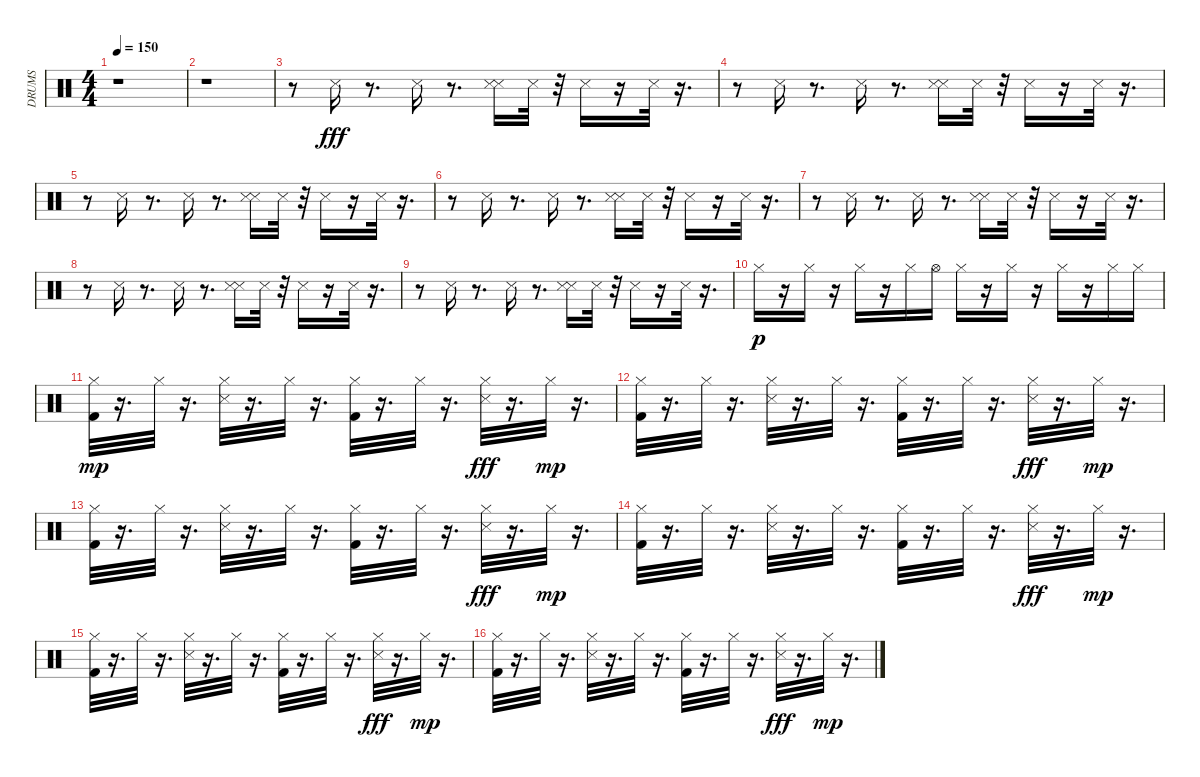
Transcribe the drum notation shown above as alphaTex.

\track ("DRUMS" "DRUMS") {instrument percussion}
\staff {score}
\articulation defaults
\ts (4 4)
\tempo 150
\clef neutral
\ks c
r.1{dy fff} |
r.1 |
r.8 "Metronome (hit)".16 r.8{d} "Metronome (hit)".16 r.8{d} ("Metronome (hit)" "Metronome (hit)").16 "Metronome (hit)".32 r.32 "Metronome (hit)".16 r.16 "Metronome (hit)".32 r.16{d} |
r.8 "Metronome (hit)".16 r.8{d} "Metronome (hit)".16 r.8{d} ("Metronome (hit)" "Metronome (hit)").16 "Metronome (hit)".32 r.32 "Metronome (hit)".16 r.16 "Metronome (hit)".32 r.16{d} |
r.8 "Metronome (hit)".16 r.8{d} "Metronome (hit)".16 r.8{d} ("Metronome (hit)" "Metronome (hit)").16 "Metronome (hit)".32 r.32 "Metronome (hit)".16 r.16 "Metronome (hit)".32 r.16{d} |
r.8 "Metronome (hit)".16 r.8{d} "Metronome (hit)".16 r.8{d} ("Metronome (hit)" "Metronome (hit)").16 "Metronome (hit)".32 r.32 "Metronome (hit)".16 r.16 "Metronome (hit)".32 r.16{d} |
r.8 "Metronome (hit)".16 r.8{d} "Metronome (hit)".16 r.8{d} ("Metronome (hit)" "Metronome (hit)").16 "Metronome (hit)".32 r.32 "Metronome (hit)".16 r.16 "Metronome (hit)".32 r.16{d} |
r.8 "Metronome (hit)".16 r.8{d} "Metronome (hit)".16 r.8{d} ("Metronome (hit)" "Metronome (hit)").16 "Metronome (hit)".32 r.32 "Metronome (hit)".16 r.16 "Metronome (hit)".32 r.16{d} |
r.8 "Metronome (hit)".16 r.8{d} "Metronome (hit)".16 r.8{d} ("Metronome (hit)" "Metronome (hit)").16 "Metronome (hit)".32 r.32 "Metronome (hit)".16 r.16 "Metronome (hit)".32 r.16{d} |
"Hi-Hat (closed)".16{dy p} r.16 "Hi-Hat (closed)".16 r.16 "Hi-Hat (closed)".16 r.16 "Hi-Hat (closed)".16 "Hi-Hat (open)".16 "Hi-Hat (closed)".16 r.16 "Hi-Hat (closed)".16 r.16 "Hi-Hat (closed)".16 r.16 "Hi-Hat (closed)".16 "Hi-Hat (closed)".16 |
("Hi-Hat (closed)" "Kick (hit) 2").32{dy mp} r.16{d} "Hi-Hat (closed)".32 r.16{d} ("Snare (side stick) 3" "Hi-Hat (closed)").32 r.16{d} "Hi-Hat (closed)".32 r.16{d} ("Kick (hit) 2" "Hi-Hat (closed)").32 r.16{d} "Hi-Hat (closed)".32 r.16{d} ("Hi-Hat (closed)" "Snare (side stick) 3").32{dy fff} r.16{d} "Hi-Hat (closed)".32{dy mp} r.16{d} |
("Hi-Hat (closed)" "Kick (hit) 2").32 r.16{d} "Hi-Hat (closed)".32 r.16{d} ("Snare (side stick) 3" "Hi-Hat (closed)").32 r.16{d} "Hi-Hat (closed)".32 r.16{d} ("Kick (hit) 2" "Hi-Hat (closed)").32 r.16{d} "Hi-Hat (closed)".32 r.16{d} ("Hi-Hat (closed)" "Snare (side stick) 3").32{dy fff} r.16{d} "Hi-Hat (closed)".32{dy mp} r.16{d} |
("Hi-Hat (closed)" "Kick (hit) 2").32 r.16{d} "Hi-Hat (closed)".32 r.16{d} ("Snare (side stick) 3" "Hi-Hat (closed)").32 r.16{d} "Hi-Hat (closed)".32 r.16{d} ("Kick (hit) 2" "Hi-Hat (closed)").32 r.16{d} "Hi-Hat (closed)".32 r.16{d} ("Hi-Hat (closed)" "Snare (side stick) 3").32{dy fff} r.16{d} "Hi-Hat (closed)".32{dy mp} r.16{d} |
("Hi-Hat (closed)" "Kick (hit) 2").32 r.16{d} "Hi-Hat (closed)".32 r.16{d} ("Snare (side stick) 3" "Hi-Hat (closed)").32 r.16{d} "Hi-Hat (closed)".32 r.16{d} ("Kick (hit) 2" "Hi-Hat (closed)").32 r.16{d} "Hi-Hat (closed)".32 r.16{d} ("Hi-Hat (closed)" "Snare (side stick) 3").32{dy fff} r.16{d} "Hi-Hat (closed)".32{dy mp} r.16{d} |
("Hi-Hat (closed)" "Kick (hit) 2").32 r.16{d} "Hi-Hat (closed)".32 r.16{d} ("Snare (side stick) 3" "Hi-Hat (closed)").32 r.16{d} "Hi-Hat (closed)".32 r.16{d} ("Kick (hit) 2" "Hi-Hat (closed)").32 r.16{d} "Hi-Hat (closed)".32 r.16{d} ("Hi-Hat (closed)" "Snare (side stick) 3").32{dy fff} r.16{d} "Hi-Hat (closed)".32{dy mp} r.16{d} |
("Hi-Hat (closed)" "Kick (hit) 2").32 r.16{d} "Hi-Hat (closed)".32 r.16{d} ("Snare (side stick) 3" "Hi-Hat (closed)").32 r.16{d} "Hi-Hat (closed)".32 r.16{d} ("Kick (hit) 2" "Hi-Hat (closed)").32 r.16{d} "Hi-Hat (closed)".32 r.16{d} ("Hi-Hat (closed)" "Snare (side stick) 3").32{dy fff} r.16{d} "Hi-Hat (closed)".32{dy mp} r.16{d}
